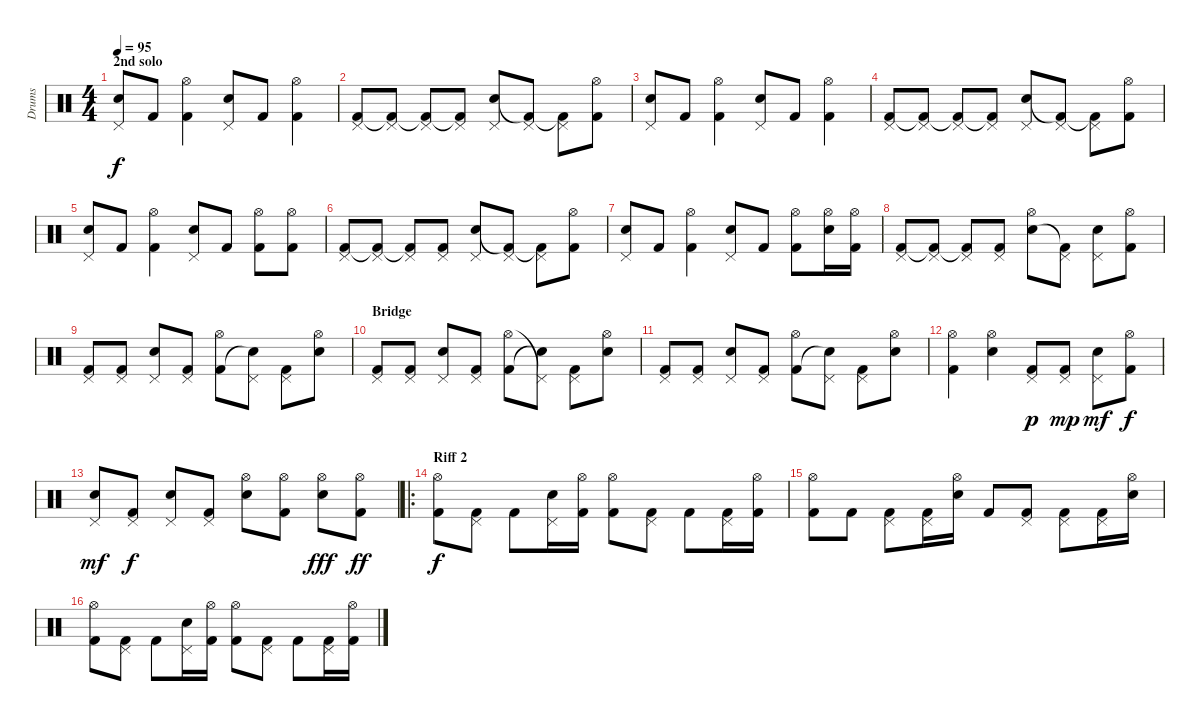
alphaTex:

\track ("Drums" "Drums") {instrument percussion}
\staff {score}
\articulation defaults
\ts (4 4)
\section ("" "2nd solo")
\tempo 95
\clef neutral
\ks c
("Pedal Hi-Hat (hit)" "Snare (hit) 2").8{dy f} "Kick (hit) 2".8 ("Hi-Hat (open)" "Kick (hit) 2").4 ("Pedal Hi-Hat (hit)" "Snare (hit) 2").8 "Kick (hit) 2".8 ("Hi-Hat (open)" "Kick (hit) 2").4 |
("Pedal Hi-Hat (hit)" "Kick (hit) 2").8 ("Pedal Hi-Hat (hit)" "Kick (hit) 2"{t}).8 ("Pedal Hi-Hat (hit)" "Kick (hit) 2"{t}).8 ("Pedal Hi-Hat (hit)" "Kick (hit) 2"{t}).8 ("Pedal Hi-Hat (hit)" "Snare (hit) 2").8 ("Pedal Hi-Hat (hit)" "Kick (hit) 2"{t}).8 ("Pedal Hi-Hat (hit)" "Kick (hit) 2"{t}).8 ("Hi-Hat (open)" "Kick (hit) 2").8 |
("Pedal Hi-Hat (hit)" "Snare (hit) 2").8 "Kick (hit) 2".8 ("Hi-Hat (open)" "Kick (hit) 2").4 ("Pedal Hi-Hat (hit)" "Snare (hit) 2").8 "Kick (hit) 2".8 ("Hi-Hat (open)" "Kick (hit) 2").4 |
("Pedal Hi-Hat (hit)" "Kick (hit) 2").8 ("Pedal Hi-Hat (hit)" "Kick (hit) 2"{t}).8 ("Pedal Hi-Hat (hit)" "Kick (hit) 2"{t}).8 ("Pedal Hi-Hat (hit)" "Kick (hit) 2"{t}).8 ("Pedal Hi-Hat (hit)" "Snare (hit) 2").8 ("Pedal Hi-Hat (hit)" "Kick (hit) 2"{t}).8 ("Pedal Hi-Hat (hit)" "Kick (hit) 2"{t}).8 ("Hi-Hat (open)" "Kick (hit) 2").8 |
("Pedal Hi-Hat (hit)" "Snare (hit) 2").8 "Kick (hit) 2".8 ("Hi-Hat (open)" "Kick (hit) 2").4 ("Pedal Hi-Hat (hit)" "Snare (hit) 2").8 "Kick (hit) 2".8 ("Hi-Hat (open)" "Kick (hit) 2").8 ("Hi-Hat (open)" "Kick (hit) 2").8 |
("Pedal Hi-Hat (hit)" "Kick (hit) 2").8 ("Pedal Hi-Hat (hit)" "Kick (hit) 2"{t}).8 ("Pedal Hi-Hat (hit)" "Kick (hit) 2"{t}).8 ("Pedal Hi-Hat (hit)" "Kick (hit) 2").8 ("Pedal Hi-Hat (hit)" "Snare (hit) 2").8 ("Pedal Hi-Hat (hit)" "Kick (hit) 2"{t}).8 ("Pedal Hi-Hat (hit)" "Kick (hit) 2"{t}).8 ("Hi-Hat (open)" "Kick (hit) 2").8 |
("Pedal Hi-Hat (hit)" "Snare (hit) 2").8 "Kick (hit) 2".8 ("Hi-Hat (open)" "Kick (hit) 2").4 ("Pedal Hi-Hat (hit)" "Snare (hit) 2").8 "Kick (hit) 2".8 ("Hi-Hat (open)" "Kick (hit) 2").8 ("Hi-Hat (open)" "Snare (hit) 2").16 ("Hi-Hat (open)" "Kick (hit) 2").16 |
("Pedal Hi-Hat (hit)" "Kick (hit) 2").8 ("Pedal Hi-Hat (hit)" "Kick (hit) 2"{t}).8 ("Pedal Hi-Hat (hit)" "Kick (hit) 2"{t}).8 ("Pedal Hi-Hat (hit)" "Kick (hit) 2").8 ("Hi-Hat (open)" "Snare (hit) 2").8 ("Pedal Hi-Hat (hit)" "Kick (hit) 2"{t}).8 ("Pedal Hi-Hat (hit)" "Snare (hit) 2").8 ("Hi-Hat (open)" "Kick (hit) 2").8 |
("Pedal Hi-Hat (hit)" "Kick (hit) 2").8 ("Pedal Hi-Hat (hit)" "Kick (hit) 2").8 ("Pedal Hi-Hat (hit)" "Snare (hit) 2").8 ("Pedal Hi-Hat (hit)" "Kick (hit) 2").8 ("Hi-Hat (open)" "Kick (hit) 2").8 ("Pedal Hi-Hat (hit)" "Snare (hit)"{t}).8 ("Pedal Hi-Hat (hit)" "Kick (hit) 2").8 ("Hi-Hat (open)" "Snare (hit) 2").8 |
\section ("" "Bridge")
("Pedal Hi-Hat (hit)" "Kick (hit) 2").8 ("Pedal Hi-Hat (hit)" "Kick (hit) 2").8 ("Pedal Hi-Hat (hit)" "Snare (hit) 2").8 ("Pedal Hi-Hat (hit)" "Kick (hit) 2").8 ("Hi-Hat (open)" "Kick (hit) 2").8 ("Pedal Hi-Hat (hit)"{t} "Snare (hit)"{t}).8 ("Pedal Hi-Hat (hit)" "Kick (hit) 2").8 ("Hi-Hat (open)" "Snare (hit) 2").8 |
("Pedal Hi-Hat (hit)" "Kick (hit) 2").8 ("Pedal Hi-Hat (hit)" "Kick (hit) 2").8 ("Pedal Hi-Hat (hit)" "Snare (hit) 2").8 ("Pedal Hi-Hat (hit)" "Kick (hit) 2").8 ("Hi-Hat (open)" "Kick (hit) 2").8 ("Pedal Hi-Hat (hit)" "Snare (hit)"{t}).8 ("Pedal Hi-Hat (hit)" "Kick (hit) 2").8 ("Hi-Hat (open)" "Snare (hit) 2").8 |
("Hi-Hat (open)" "Kick (hit) 2").4 ("Hi-Hat (open)" "Snare (hit) 2").4 ("Pedal Hi-Hat (hit)" "Kick (hit) 2").8{dy p} ("Pedal Hi-Hat (hit)" "Kick (hit) 2").8{dy mp} ("Pedal Hi-Hat (hit)" "Snare (hit) 2").8{dy mf} ("Hi-Hat (open)" "Kick (hit) 2").8{dy f} |
("Snare (hit) 2" "Pedal Hi-Hat (hit)").8{dy mf} ("Pedal Hi-Hat (hit)" "Kick (hit) 2").8{dy f} ("Snare (hit) 2" "Pedal Hi-Hat (hit)").8 ("Pedal Hi-Hat (hit)" "Kick (hit) 2").8 ("Snare (hit) 2" "Hi-Hat (open)").8 ("Hi-Hat (open)" "Kick (hit) 2").8 ("Snare (hit) 2" "Hi-Hat (open)").8{dy fff} ("Hi-Hat (open)" "Kick (hit) 2").8{dy ff} |
\ro
\section ("" "Riff 2")
("Hi-Hat (open)" "Kick (hit) 2").8{dy f} ("Pedal Hi-Hat (hit)" "Kick (hit) 2").8 "Kick (hit) 2".8 ("Pedal Hi-Hat (hit)" "Snare (hit) 2").16 ("Hi-Hat (open)" "Kick (hit) 2").16 ("Hi-Hat (open)" "Kick (hit) 2").8 ("Pedal Hi-Hat (hit)" "Kick (hit) 2").8 "Kick (hit) 2".8 ("Pedal Hi-Hat (hit)" "Kick (hit) 2").16 ("Hi-Hat (open)" "Kick (hit) 2").16 |
("Hi-Hat (open)" "Kick (hit) 2").8 "Kick (hit) 2".8 ("Pedal Hi-Hat (hit)" "Kick (hit) 2").8 ("Pedal Hi-Hat (hit)" "Kick (hit) 2").16 ("Hi-Hat (open)" "Snare (hit) 2").16 "Kick (hit) 2".8 ("Pedal Hi-Hat (hit)" "Kick (hit) 2").8 ("Pedal Hi-Hat (hit)" "Kick (hit) 2").8 ("Pedal Hi-Hat (hit)" "Kick (hit) 2").16 ("Hi-Hat (open)" "Snare (hit) 2").16 |
("Hi-Hat (open)" "Kick (hit) 2").8 ("Pedal Hi-Hat (hit)" "Kick (hit) 2").8 "Kick (hit) 2".8 ("Pedal Hi-Hat (hit)" "Snare (hit) 2").16 ("Hi-Hat (open)" "Kick (hit) 2").16 ("Hi-Hat (open)" "Kick (hit) 2").8 ("Pedal Hi-Hat (hit)" "Kick (hit) 2").8 "Kick (hit) 2".8 ("Pedal Hi-Hat (hit)" "Kick (hit) 2").16 ("Hi-Hat (open)" "Kick (hit) 2").16
